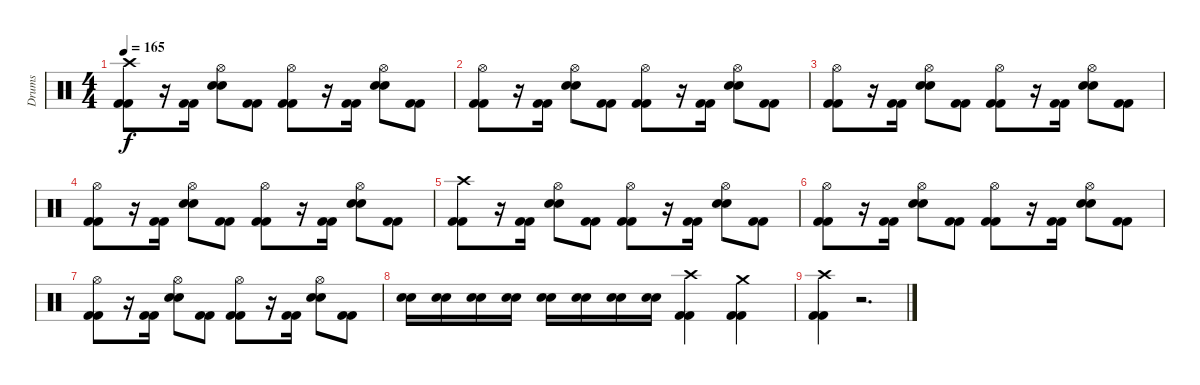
\track ("Drums" "Drums") {instrument percussion}
\staff {score}
\articulation defaults
\ts (4 4)
\tempo 165
\clef neutral
\ks c
("Crash high (hit)" "Kick (hit) 2" "Kick (hit) 2").8{dy f} r.16 ("Kick (hit) 2" "Kick (hit) 2").16 ("Hi-Hat (open)" "Snare (hit) 2" "Snare (hit) 2").8 ("Kick (hit) 2" "Kick (hit) 2").8 ("Hi-Hat (open)" "Kick (hit) 2" "Kick (hit) 2").8 r.16 ("Kick (hit) 2" "Kick (hit) 2").16 ("Hi-Hat (open)" "Snare (hit) 2" "Snare (hit) 2").8 ("Kick (hit) 2" "Kick (hit) 2").8 |
("Hi-Hat (open)" "Kick (hit) 2" "Kick (hit) 2").8 r.16 ("Kick (hit) 2" "Kick (hit) 2").16 ("Hi-Hat (open)" "Snare (hit) 2" "Snare (hit) 2").8 ("Kick (hit) 2" "Kick (hit) 2").8 ("Hi-Hat (open)" "Kick (hit) 2" "Kick (hit) 2").8 r.16 ("Kick (hit) 2" "Kick (hit) 2").16 ("Hi-Hat (open)" "Snare (hit) 2" "Snare (hit) 2").8 ("Kick (hit) 2" "Kick (hit) 2").8 |
("Hi-Hat (open)" "Kick (hit) 2" "Kick (hit) 2").8 r.16 ("Kick (hit) 2" "Kick (hit) 2").16 ("Hi-Hat (open)" "Snare (hit) 2" "Snare (hit) 2").8 ("Kick (hit) 2" "Kick (hit) 2").8 ("Hi-Hat (open)" "Kick (hit) 2" "Kick (hit) 2").8 r.16 ("Kick (hit) 2" "Kick (hit) 2").16 ("Hi-Hat (open)" "Snare (hit) 2" "Snare (hit) 2").8 ("Kick (hit) 2" "Kick (hit) 2").8 |
("Hi-Hat (open)" "Kick (hit) 2" "Kick (hit) 2").8 r.16 ("Kick (hit) 2" "Kick (hit) 2").16 ("Hi-Hat (open)" "Snare (hit) 2" "Snare (hit) 2").8 ("Kick (hit) 2" "Kick (hit) 2").8 ("Hi-Hat (open)" "Kick (hit) 2" "Kick (hit) 2").8 r.16 ("Kick (hit) 2" "Kick (hit) 2").16 ("Hi-Hat (open)" "Snare (hit) 2" "Snare (hit) 2").8 ("Kick (hit) 2" "Kick (hit) 2").8 |
("Crash high (hit)" "Kick (hit) 2" "Kick (hit) 2").8 r.16 ("Kick (hit) 2" "Kick (hit) 2").16 ("Hi-Hat (open)" "Snare (hit) 2" "Snare (hit) 2").8 ("Kick (hit) 2" "Kick (hit) 2").8 ("Hi-Hat (open)" "Kick (hit) 2" "Kick (hit) 2").8 r.16 ("Kick (hit) 2" "Kick (hit) 2").16 ("Hi-Hat (open)" "Snare (hit) 2" "Snare (hit) 2").8 ("Kick (hit) 2" "Kick (hit) 2").8 |
("Hi-Hat (open)" "Kick (hit) 2" "Kick (hit) 2").8 r.16 ("Kick (hit) 2" "Kick (hit) 2").16 ("Hi-Hat (open)" "Snare (hit) 2" "Snare (hit) 2").8 ("Kick (hit) 2" "Kick (hit) 2").8 ("Hi-Hat (open)" "Kick (hit) 2" "Kick (hit) 2").8 r.16 ("Kick (hit) 2" "Kick (hit) 2").16 ("Hi-Hat (open)" "Snare (hit) 2" "Snare (hit) 2").8 ("Kick (hit) 2" "Kick (hit) 2").8 |
("Hi-Hat (open)" "Kick (hit) 2" "Kick (hit) 2").8 r.16 ("Kick (hit) 2" "Kick (hit) 2").16 ("Hi-Hat (open)" "Snare (hit) 2" "Snare (hit) 2").8 ("Kick (hit) 2" "Kick (hit) 2").8 ("Hi-Hat (open)" "Kick (hit) 2" "Kick (hit) 2").8 r.16 ("Kick (hit) 2" "Kick (hit) 2").16 ("Hi-Hat (open)" "Snare (hit) 2" "Snare (hit) 2").8 ("Kick (hit) 2" "Kick (hit) 2").8 |
("Snare (hit) 2" "Snare (hit) 2").16 ("Snare (hit) 2" "Snare (hit) 2").16 ("Snare (hit) 2" "Snare (hit) 2").16 ("Snare (hit) 2" "Snare (hit) 2").16 ("Snare (hit) 2" "Snare (hit) 2").16 ("Snare (hit) 2" "Snare (hit) 2").16 ("Snare (hit) 2" "Snare (hit) 2").16 ("Snare (hit) 2" "Snare (hit) 2").16 ("Crash high (hit)" "Kick (hit) 2" "Kick (hit) 2").4 ("Crash medium (hit)" "Kick (hit) 2" "Kick (hit) 2").4 |
("Crash high (hit)" "Kick (hit) 2" "Kick (hit) 2").4 r.2{d}
